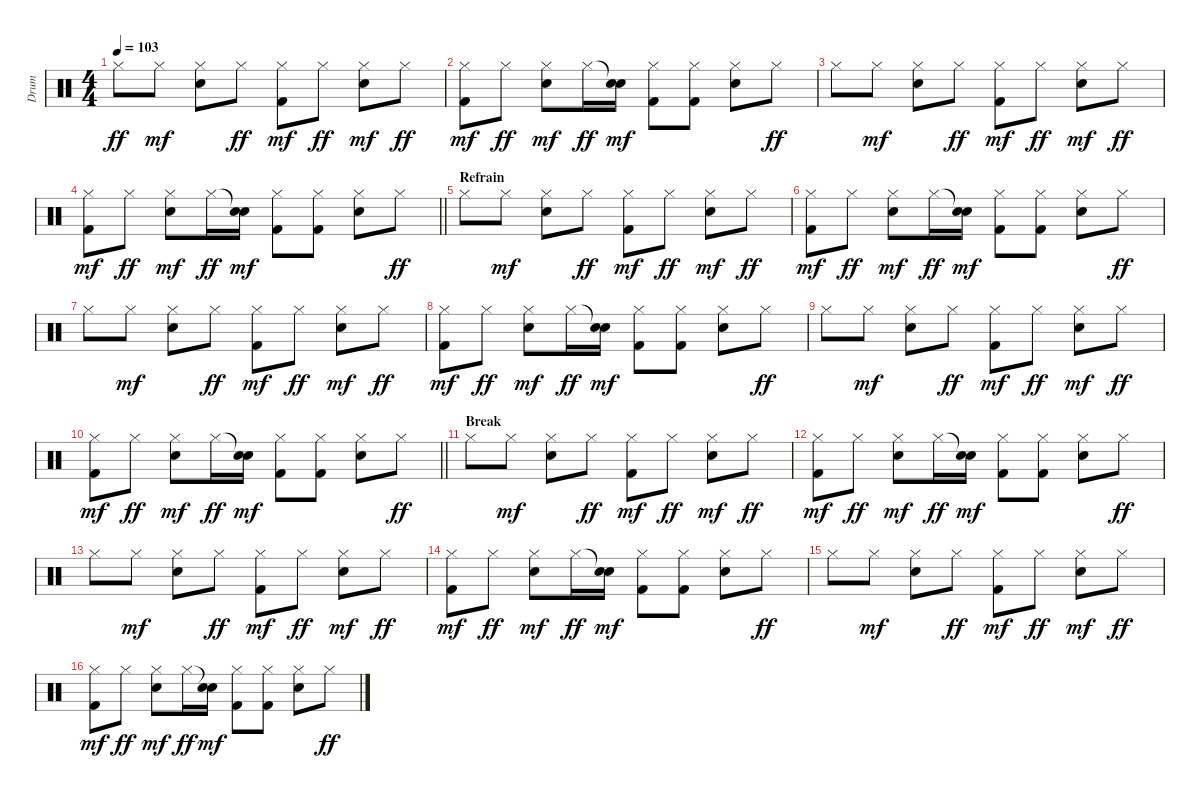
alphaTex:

\track ("Drum" "Drum") {instrument percussion}
\staff {score}
\articulation defaults
\ts (4 4)
\tempo 103
\clef neutral
\ks c "Hi-Hat (closed)".8{dy ff} "Hi-Hat (closed)".8{dy mf}
("Hi-Hat (closed)" "Electric Snare (hit)").8 "Hi-Hat (closed)".8{dy ff} ("Hi-Hat (closed)" "Kick (hit) 2").8{dy mf} "Hi-Hat (closed)".8{dy ff} ("Hi-Hat (closed)" "Electric Snare (hit)").8{dy mf} "Hi-Hat (closed)".8{dy ff} |
("Hi-Hat (closed)" "Kick (hit) 2").8{dy mf} "Hi-Hat (closed)".8{dy ff} ("Hi-Hat (closed)" "Electric Snare (hit)").8{dy mf} "Hi-Hat (closed)".16{dy ff} ("Snare (hit)"{t} "Electric Snare (hit)").16{dy mf} ("Hi-Hat (closed)" "Kick (hit) 2").8 ("Hi-Hat (closed)" "Kick (hit) 2").8 ("Hi-Hat (closed)" "Electric Snare (hit)").8 "Hi-Hat (closed)".8{dy ff} |
"Hi-Hat (closed)".8 "Hi-Hat (closed)".8{dy mf} ("Hi-Hat (closed)" "Electric Snare (hit)").8 "Hi-Hat (closed)".8{dy ff} ("Hi-Hat (closed)" "Kick (hit) 2").8{dy mf} "Hi-Hat (closed)".8{dy ff} ("Hi-Hat (closed)" "Electric Snare (hit)").8{dy mf} "Hi-Hat (closed)".8{dy ff} |
\barLineRight lightlight
("Hi-Hat (closed)" "Kick (hit) 2").8{dy mf} "Hi-Hat (closed)".8{dy ff} ("Hi-Hat (closed)" "Electric Snare (hit)").8{dy mf} "Hi-Hat (closed)".16{dy ff} ("Snare (hit)"{t} "Electric Snare (hit)").16{dy mf} ("Hi-Hat (closed)" "Kick (hit) 2").8 ("Hi-Hat (closed)" "Kick (hit) 2").8 ("Hi-Hat (closed)" "Electric Snare (hit)").8 "Hi-Hat (closed)".8{dy ff} |
\section ("" "Refrain")
"Hi-Hat (closed)".8 "Hi-Hat (closed)".8{dy mf} ("Hi-Hat (closed)" "Electric Snare (hit)").8 "Hi-Hat (closed)".8{dy ff} ("Hi-Hat (closed)" "Kick (hit) 2").8{dy mf} "Hi-Hat (closed)".8{dy ff} ("Hi-Hat (closed)" "Electric Snare (hit)").8{dy mf} "Hi-Hat (closed)".8{dy ff} |
("Hi-Hat (closed)" "Kick (hit) 2").8{dy mf} "Hi-Hat (closed)".8{dy ff} ("Hi-Hat (closed)" "Electric Snare (hit)").8{dy mf} "Hi-Hat (closed)".16{dy ff} ("Snare (hit)"{t} "Electric Snare (hit)").16{dy mf} ("Hi-Hat (closed)" "Kick (hit) 2").8 ("Hi-Hat (closed)" "Kick (hit) 2").8 ("Hi-Hat (closed)" "Electric Snare (hit)").8 "Hi-Hat (closed)".8{dy ff} |
"Hi-Hat (closed)".8 "Hi-Hat (closed)".8{dy mf} ("Hi-Hat (closed)" "Electric Snare (hit)").8 "Hi-Hat (closed)".8{dy ff} ("Hi-Hat (closed)" "Kick (hit) 2").8{dy mf} "Hi-Hat (closed)".8{dy ff} ("Hi-Hat (closed)" "Electric Snare (hit)").8{dy mf} "Hi-Hat (closed)".8{dy ff} |
("Hi-Hat (closed)" "Kick (hit) 2").8{dy mf} "Hi-Hat (closed)".8{dy ff} ("Hi-Hat (closed)" "Electric Snare (hit)").8{dy mf} "Hi-Hat (closed)".16{dy ff} ("Snare (hit)"{t} "Electric Snare (hit)").16{dy mf} ("Hi-Hat (closed)" "Kick (hit) 2").8 ("Hi-Hat (closed)" "Kick (hit) 2").8 ("Hi-Hat (closed)" "Electric Snare (hit)").8 "Hi-Hat (closed)".8{dy ff} |
"Hi-Hat (closed)".8 "Hi-Hat (closed)".8{dy mf} ("Hi-Hat (closed)" "Electric Snare (hit)").8 "Hi-Hat (closed)".8{dy ff} ("Hi-Hat (closed)" "Kick (hit) 2").8{dy mf} "Hi-Hat (closed)".8{dy ff} ("Hi-Hat (closed)" "Electric Snare (hit)").8{dy mf} "Hi-Hat (closed)".8{dy ff} |
\barLineRight lightlight
("Hi-Hat (closed)" "Kick (hit) 2").8{dy mf} "Hi-Hat (closed)".8{dy ff} ("Hi-Hat (closed)" "Electric Snare (hit)").8{dy mf} "Hi-Hat (closed)".16{dy ff} ("Snare (hit)"{t} "Electric Snare (hit)").16{dy mf} ("Hi-Hat (closed)" "Kick (hit) 2").8 ("Hi-Hat (closed)" "Kick (hit) 2").8 ("Hi-Hat (closed)" "Electric Snare (hit)").8 "Hi-Hat (closed)".8{dy ff} |
\section ("" "Break")
"Hi-Hat (closed)".8 "Hi-Hat (closed)".8{dy mf} ("Hi-Hat (closed)" "Electric Snare (hit)").8 "Hi-Hat (closed)".8{dy ff} ("Hi-Hat (closed)" "Kick (hit) 2").8{dy mf} "Hi-Hat (closed)".8{dy ff} ("Hi-Hat (closed)" "Electric Snare (hit)").8{dy mf} "Hi-Hat (closed)".8{dy ff} |
("Hi-Hat (closed)" "Kick (hit) 2").8{dy mf} "Hi-Hat (closed)".8{dy ff} ("Hi-Hat (closed)" "Electric Snare (hit)").8{dy mf} "Hi-Hat (closed)".16{dy ff} ("Snare (hit)"{t} "Electric Snare (hit)").16{dy mf} ("Hi-Hat (closed)" "Kick (hit) 2").8 ("Hi-Hat (closed)" "Kick (hit) 2").8 ("Hi-Hat (closed)" "Electric Snare (hit)").8 "Hi-Hat (closed)".8{dy ff} |
"Hi-Hat (closed)".8 "Hi-Hat (closed)".8{dy mf} ("Hi-Hat (closed)" "Electric Snare (hit)").8 "Hi-Hat (closed)".8{dy ff} ("Hi-Hat (closed)" "Kick (hit) 2").8{dy mf} "Hi-Hat (closed)".8{dy ff} ("Hi-Hat (closed)" "Electric Snare (hit)").8{dy mf} "Hi-Hat (closed)".8{dy ff} |
("Hi-Hat (closed)" "Kick (hit) 2").8{dy mf} "Hi-Hat (closed)".8{dy ff} ("Hi-Hat (closed)" "Electric Snare (hit)").8{dy mf} "Hi-Hat (closed)".16{dy ff} ("Snare (hit)"{t} "Electric Snare (hit)").16{dy mf} ("Hi-Hat (closed)" "Kick (hit) 2").8 ("Hi-Hat (closed)" "Kick (hit) 2").8 ("Hi-Hat (closed)" "Electric Snare (hit)").8 "Hi-Hat (closed)".8{dy ff} |
"Hi-Hat (closed)".8 "Hi-Hat (closed)".8{dy mf} ("Hi-Hat (closed)" "Electric Snare (hit)").8 "Hi-Hat (closed)".8{dy ff} ("Hi-Hat (closed)" "Kick (hit) 2").8{dy mf} "Hi-Hat (closed)".8{dy ff} ("Hi-Hat (closed)" "Electric Snare (hit)").8{dy mf} "Hi-Hat (closed)".8{dy ff} |
("Hi-Hat (closed)" "Kick (hit) 2").8{dy mf} "Hi-Hat (closed)".8{dy ff} ("Hi-Hat (closed)" "Electric Snare (hit)").8{dy mf} "Hi-Hat (closed)".16{dy ff} ("Snare (hit)"{t} "Electric Snare (hit)").16{dy mf} ("Hi-Hat (closed)" "Kick (hit) 2").8 ("Hi-Hat (closed)" "Kick (hit) 2").8 ("Hi-Hat (closed)" "Electric Snare (hit)").8 "Hi-Hat (closed)".8{dy ff}
